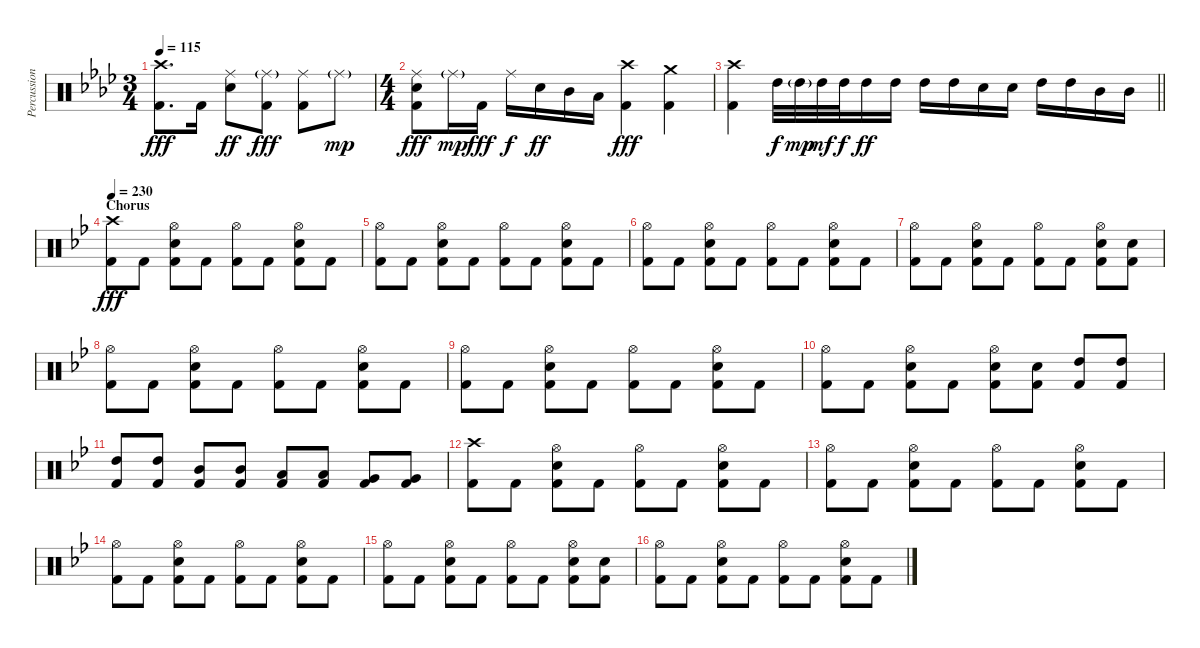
\track ("Percussion" "Percussion") {instrument percussion}
\staff {score}
\articulation defaults
\ts (3 4)
\tempo 115
\clef neutral
\ks fminor
("Crash high (hit)" "Kick (hit) 2").8{d dy fff} "Kick (hit) 2".16 ("Ride (middle)" "Electric Snare (hit)").8{dy ff} ("Ride (middle)"{g} "Kick (hit) 2").8{dy fff} ("Ride (middle)" "Kick (hit) 2").8 "Ride (middle)"{g}.8{dy mp} |
\ts (4 4)
("Ride (middle)" "Electric Snare (hit)" "Kick (hit) 2").8{dy fff} "Ride (middle)"{g}.16{dy mp} "Kick (hit) 2".16{dy fff} "Ride (middle)".16{dy f} "Electric Snare (hit)".16{dy ff} "Mid Tom (hit)".16 "Low Tom (hit)".16 ("Crash high (hit)" "Kick (hit) 2").4{dy fff} ("Crash medium (hit)" "Kick (hit) 2").4 |
\barLineRight lightlight
("Crash high (hit)" "Kick (hit) 2").4 "High Tom (hit)".32{dy f} "High Tom (hit)"{g}.32{dy mp} "High Tom (hit)".32{dy mf} "High Tom (hit)".32{dy f} "High Tom (hit)".16{dy ff} "High Tom (hit)".16 "High Tom (hit)".16 "High Tom (hit)".16 "Electric Snare (hit)".16 "Electric Snare (hit)".16 "High Tom (hit)".16 "High Tom (hit)".16 "Mid Tom (hit)".16 "Mid Tom (hit)".16 |
\section ("" "Chorus")
\tempo 230
\ks gminor
("Crash high (hit)" "Kick (hit) 2").8{dy fff} "Kick (hit) 2".8 ("Hi-Hat (open)" "Electric Snare (hit)" "Kick (hit) 2").8 "Kick (hit) 2".8 ("Hi-Hat (open)" "Kick (hit) 2").8 "Kick (hit) 2".8 ("Hi-Hat (open)" "Electric Snare (hit)" "Kick (hit) 2").8 "Kick (hit) 2".8 |
("Hi-Hat (open)" "Kick (hit) 2").8 "Kick (hit) 2".8 ("Hi-Hat (open)" "Electric Snare (hit)" "Kick (hit) 2").8 "Kick (hit) 2".8 ("Hi-Hat (open)" "Kick (hit) 2").8 "Kick (hit) 2".8 ("Hi-Hat (open)" "Electric Snare (hit)" "Kick (hit) 2").8 "Kick (hit) 2".8 |
("Hi-Hat (open)" "Kick (hit) 2").8 "Kick (hit) 2".8 ("Hi-Hat (open)" "Electric Snare (hit)" "Kick (hit) 2").8 "Kick (hit) 2".8 ("Hi-Hat (open)" "Kick (hit) 2").8 "Kick (hit) 2".8 ("Hi-Hat (open)" "Electric Snare (hit)" "Kick (hit) 2").8 "Kick (hit) 2".8 |
("Hi-Hat (open)" "Kick (hit) 2").8 "Kick (hit) 2".8 ("Hi-Hat (open)" "Electric Snare (hit)" "Kick (hit) 2").8 "Kick (hit) 2".8 ("Hi-Hat (open)" "Kick (hit) 2").8 "Kick (hit) 2".8 ("Hi-Hat (open)" "Electric Snare (hit)" "Kick (hit) 2").8 ("Electric Snare (hit)" "Kick (hit) 2").8 |
("Hi-Hat (open)" "Kick (hit) 2").8 "Kick (hit) 2".8 ("Hi-Hat (open)" "Electric Snare (hit)" "Kick (hit) 2").8 "Kick (hit) 2".8 ("Hi-Hat (open)" "Kick (hit) 2").8 "Kick (hit) 2".8 ("Hi-Hat (open)" "Electric Snare (hit)" "Kick (hit) 2").8 "Kick (hit) 2".8 |
("Hi-Hat (open)" "Kick (hit) 2").8 "Kick (hit) 2".8 ("Hi-Hat (open)" "Electric Snare (hit)" "Kick (hit) 2").8 "Kick (hit) 2".8 ("Hi-Hat (open)" "Kick (hit) 2").8 "Kick (hit) 2".8 ("Hi-Hat (open)" "Electric Snare (hit)" "Kick (hit) 2").8 "Kick (hit) 2".8 |
("Hi-Hat (open)" "Kick (hit) 2").8 "Kick (hit) 2".8 ("Hi-Hat (open)" "Electric Snare (hit)" "Kick (hit) 2").8 "Kick (hit) 2".8 ("Hi-Hat (open)" "Electric Snare (hit)" "Kick (hit) 2").8 ("Electric Snare (hit)" "Kick (hit) 2").8 ("High Tom (hit)" "Kick (hit) 2").8 ("High Tom (hit)" "Kick (hit) 2").8 |
("High Tom (hit)" "Kick (hit) 2").8 ("High Tom (hit)" "Kick (hit) 2").8 ("Mid Tom (hit)" "Kick (hit) 2").8 ("Mid Tom (hit)" "Kick (hit) 2").8 ("Low Tom (hit)" "Kick (hit) 2").8 ("Low Tom (hit)" "Kick (hit) 2").8 ("Very Low Tom (hit)" "Kick (hit) 2").8 ("Very Low Tom (hit)" "Kick (hit) 2").8 |
("Crash high (hit)" "Kick (hit) 2").8 "Kick (hit) 2".8 ("Hi-Hat (open)" "Electric Snare (hit)" "Kick (hit) 2").8 "Kick (hit) 2".8 ("Hi-Hat (open)" "Kick (hit) 2").8 "Kick (hit) 2".8 ("Hi-Hat (open)" "Electric Snare (hit)" "Kick (hit) 2").8 "Kick (hit) 2".8 |
("Hi-Hat (open)" "Kick (hit) 2").8 "Kick (hit) 2".8 ("Hi-Hat (open)" "Electric Snare (hit)" "Kick (hit) 2").8 "Kick (hit) 2".8 ("Hi-Hat (open)" "Kick (hit) 2").8 "Kick (hit) 2".8 ("Hi-Hat (open)" "Electric Snare (hit)" "Kick (hit) 2").8 "Kick (hit) 2".8 |
("Hi-Hat (open)" "Kick (hit) 2").8 "Kick (hit) 2".8 ("Hi-Hat (open)" "Electric Snare (hit)" "Kick (hit) 2").8 "Kick (hit) 2".8 ("Hi-Hat (open)" "Kick (hit) 2").8 "Kick (hit) 2".8 ("Hi-Hat (open)" "Electric Snare (hit)" "Kick (hit) 2").8 "Kick (hit) 2".8 |
("Hi-Hat (open)" "Kick (hit) 2").8 "Kick (hit) 2".8 ("Hi-Hat (open)" "Electric Snare (hit)" "Kick (hit) 2").8 "Kick (hit) 2".8 ("Hi-Hat (open)" "Kick (hit) 2").8 "Kick (hit) 2".8 ("Hi-Hat (open)" "Electric Snare (hit)" "Kick (hit) 2").8 ("Electric Snare (hit)" "Kick (hit) 2").8 |
("Hi-Hat (open)" "Kick (hit) 2").8 "Kick (hit) 2".8 ("Hi-Hat (open)" "Electric Snare (hit)" "Kick (hit) 2").8 "Kick (hit) 2".8 ("Hi-Hat (open)" "Kick (hit) 2").8 "Kick (hit) 2".8 ("Hi-Hat (open)" "Electric Snare (hit)" "Kick (hit) 2").8 "Kick (hit) 2".8
